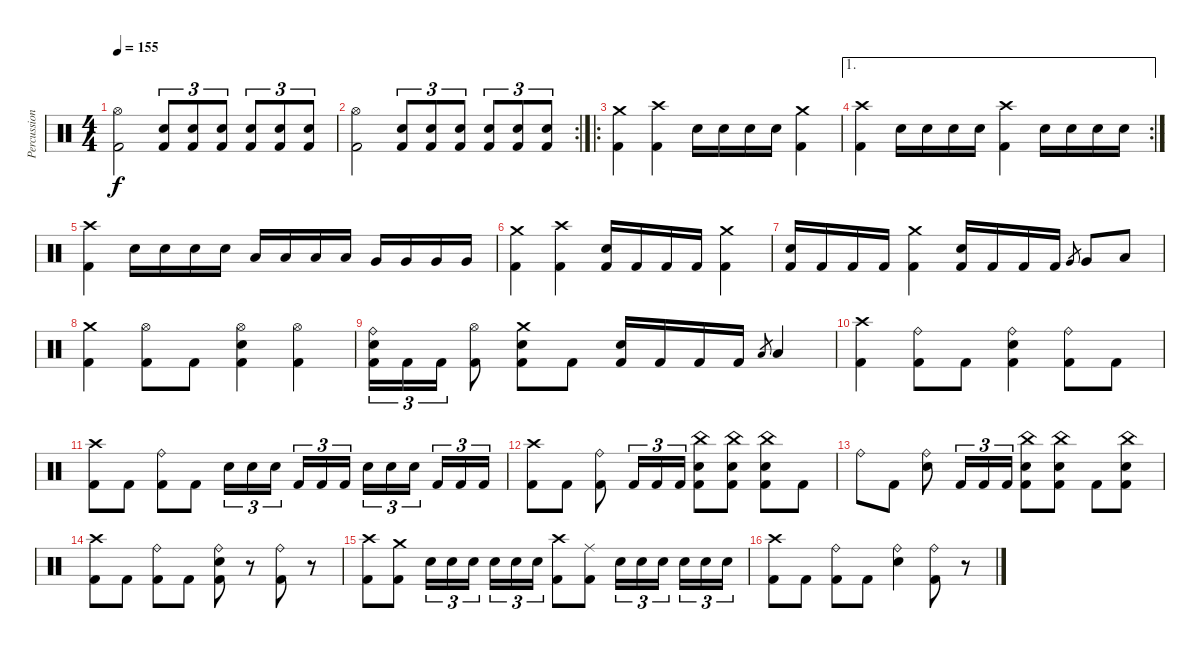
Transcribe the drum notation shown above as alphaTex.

\track ("Percussion" "Percussion") {instrument percussion}
\staff {score}
\articulation defaults
\ts (4 4)
\tempo 155
\clef neutral
\ks c
("Hi-Hat (open)" "Kick (hit) 2").2{dy f} ("Snare (hit) 2" "Kick (hit) 2").8{tu (3 2)} ("Snare (hit) 2" "Kick (hit) 2").8{tu (3 2)} ("Snare (hit) 2" "Kick (hit) 2").8{tu (3 2)} ("Snare (hit) 2" "Kick (hit) 2").8{tu (3 2)} ("Snare (hit) 2" "Kick (hit) 2").8{tu (3 2)} ("Snare (hit) 2" "Kick (hit) 2").8{tu (3 2)} |
\rc 2
("Hi-Hat (open)" "Kick (hit) 2").2 ("Snare (hit) 2" "Kick (hit) 2").8{tu (3 2)} ("Snare (hit) 2" "Kick (hit) 2").8{tu (3 2)} ("Snare (hit) 2" "Kick (hit) 2").8{tu (3 2)} ("Snare (hit) 2" "Kick (hit) 2").8{tu (3 2)} ("Snare (hit) 2" "Kick (hit) 2").8{tu (3 2)} ("Snare (hit) 2" "Kick (hit) 2").8{tu (3 2)} |
\ro
("Crash medium (hit)" "Kick (hit) 2").4 ("Crash high (hit)" "Kick (hit) 2").4 "Snare (hit) 2".16 "Snare (hit) 2".16 "Snare (hit) 2".16 "Snare (hit) 2".16 ("Crash medium (hit)" "Kick (hit) 2").4 |
\ae 1
\rc 2
("Crash high (hit)" "Kick (hit) 2").4 "Snare (hit) 2".16 "Snare (hit) 2".16 "Snare (hit) 2".16 "Snare (hit) 2".16 ("Crash high (hit)" "Kick (hit) 2").4 "Snare (hit) 2".16 "Snare (hit) 2".16 "Snare (hit) 2".16 "Snare (hit) 2".16 |
("Crash high (hit)" "Kick (hit) 2").4 "Snare (hit) 2".16 "Snare (hit) 2".16 "Snare (hit) 2".16 "Snare (hit) 2".16 "Low Tom (hit)".16 "Low Tom (hit)".16 "Low Tom (hit)".16 "Low Tom (hit)".16 "Very Low Tom (hit)".16 "Very Low Tom (hit)".16 "Very Low Tom (hit)".16 "Very Low Tom (hit)".16 |
("Crash medium (hit)" "Kick (hit) 2").4 ("Crash high (hit)" "Kick (hit) 2").4 ("Snare (hit) 2" "Kick (hit) 2").16 "Kick (hit) 2".16 "Kick (hit) 2".16 "Kick (hit) 2".16 ("Crash medium (hit)" "Kick (hit) 2").4 |
("Snare (hit) 2" "Kick (hit) 2").16 "Kick (hit) 2".16 "Kick (hit) 2".16 "Kick (hit) 2".16 ("Crash medium (hit)" "Kick (hit) 2").4 ("Snare (hit) 2" "Kick (hit) 2").16 "Kick (hit) 2".16 "Kick (hit) 2".16 "Kick (hit) 2".16 "Very Low Tom (hit)".8{gr} "Very Low Tom (hit)".8 "Low Floor Tom (hit)".8 |
("Crash medium (hit)" "Kick (hit) 2").4 ("Hi-Hat (open)" "Kick (hit) 2").8 "Kick (hit) 2".8 ("Hi-Hat (open)" "Snare (hit) 2" "Kick (hit) 2").4 ("Hi-Hat (open)" "Kick (hit) 2").4 |
("Ride (bell)" "Snare (hit) 2" "Kick (hit) 2").16{tu (3 2)} "Kick (hit) 2".16{tu (3 2)} "Kick (hit) 2".16{tu (3 2)} ("Hi-Hat (open)" "Kick (hit) 2").8 ("Crash medium (hit)" "Snare (hit) 2" "Kick (hit) 2").8 "Kick (hit) 2".8 ("Snare (hit) 2" "Kick (hit) 2").16 "Kick (hit) 2".16 "Kick (hit) 2".16 "Kick (hit) 2".16 "Low Floor Tom (hit)".8{gr} "Low Floor Tom (hit)".4 |
("Crash high (hit)" "Kick (hit) 2").4 ("Ride (bell)" "Kick (hit) 2").8 "Kick (hit) 2".8 ("Ride (bell)" "Snare (hit) 2" "Kick (hit) 2").4 ("Ride (bell)" "Kick (hit) 2").8 "Kick (hit) 2".8 |
("Crash high (hit)" "Kick (hit) 2").8 "Kick (hit) 2".8 ("Ride (bell)" "Kick (hit) 2").8 "Kick (hit) 2".8 "Snare (hit) 2".16{tu (3 2)} "Snare (hit) 2".16{tu (3 2)} "Snare (hit) 2".16{tu (3 2) beam splitsecondary} "Kick (hit) 2".16{tu (3 2)} "Kick (hit) 2".16{tu (3 2)} "Kick (hit) 2".16{tu (3 2)} "Snare (hit) 2".16{tu (3 2)} "Snare (hit) 2".16{tu (3 2)} "Snare (hit) 2".16{tu (3 2) beam splitsecondary} "Kick (hit) 2".16{tu (3 2)} "Kick (hit) 2".16{tu (3 2)} "Kick (hit) 2".16{tu (3 2)} |
("Crash high (hit)" "Kick (hit) 2").8 "Kick (hit) 2".8 ("Ride (bell)" "Kick (hit) 2").8 "Kick (hit) 2".16{tu (3 2)} "Kick (hit) 2".16{tu (3 2)} "Kick (hit) 2".16{tu (3 2)} ("China (hit)" "Snare (hit) 2" "Kick (hit) 2").8 ("China (hit)" "Snare (hit) 2" "Kick (hit) 2").8 ("China (hit)" "Snare (hit) 2" "Kick (hit) 2").8 "Kick (hit) 2".8 |
"Ride (bell)".8 "Kick (hit) 2".8 ("Ride (bell)" "Snare (hit) 2").8 "Kick (hit) 2".16{tu (3 2)} "Kick (hit) 2".16{tu (3 2)} "Kick (hit) 2".16{tu (3 2)} ("China (hit)" "Snare (hit) 2" "Kick (hit) 2").8 ("China (hit)" "Snare (hit) 2" "Kick (hit) 2").8 "Kick (hit) 2".8 ("China (hit)" "Snare (hit) 2" "Kick (hit) 2").8 |
("Crash high (hit)" "Kick (hit) 2").8 "Kick (hit) 2".8 ("Ride (bell)" "Kick (hit) 2").8 "Kick (hit) 2".8 ("Ride (bell)" "Snare (hit) 2" "Kick (hit) 2").8 r.8 ("Ride (bell)" "Kick (hit) 2").8 r.8 |
("Crash high (hit)" "Kick (hit) 2").8 ("Crash medium (hit)" "Kick (hit) 2").8 "Snare (hit) 2".16{tu (3 2)} "Snare (hit) 2".16{tu (3 2)} "Snare (hit) 2".16{tu (3 2) beam splitsecondary} "Snare (hit) 2".16{tu (3 2)} "Snare (hit) 2".16{tu (3 2)} "Snare (hit) 2".16{tu (3 2)} ("Crash high (hit)" "Kick (hit) 2").8 ("Ride (middle)" "Kick (hit) 2").8 "Snare (hit) 2".16{tu (3 2)} "Snare (hit) 2".16{tu (3 2)} "Snare (hit) 2".16{tu (3 2) beam splitsecondary} "Snare (hit) 2".16{tu (3 2)} "Snare (hit) 2".16{tu (3 2)} "Snare (hit) 2".16{tu (3 2)} |
("Crash high (hit)" "Kick (hit) 2").8 "Kick (hit) 2".8 ("Ride (bell)" "Kick (hit) 2").8 "Kick (hit) 2".8 ("Ride (bell)" "Snare (hit) 2").4 ("Ride (bell)" "Kick (hit) 2").8 r.8
